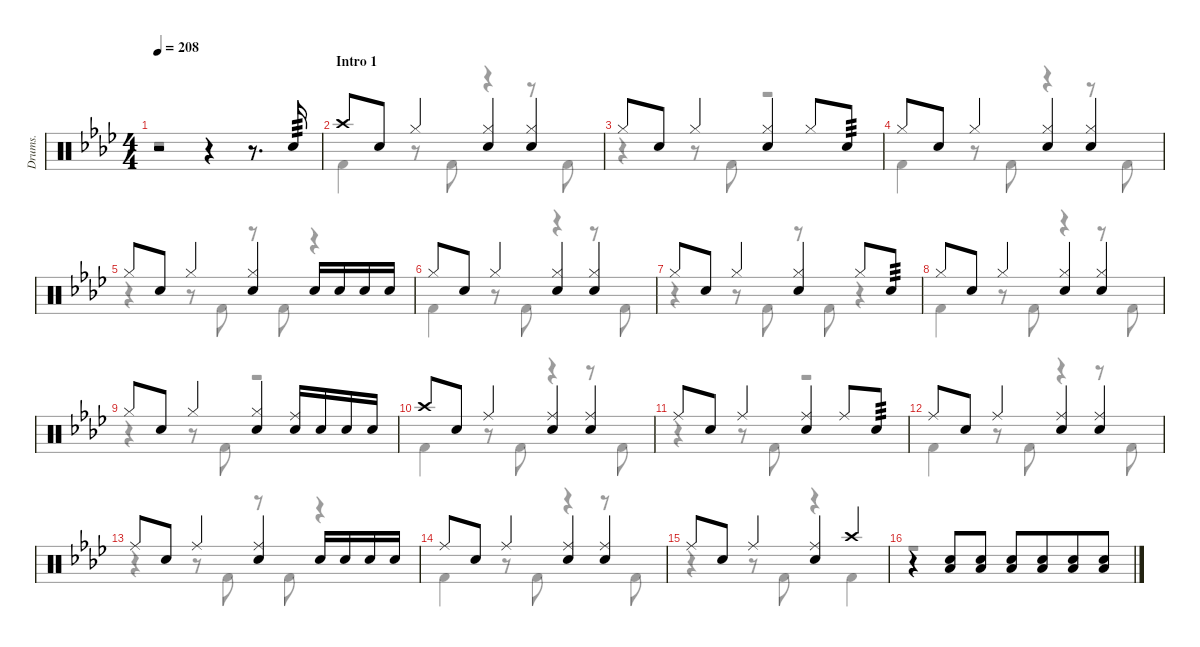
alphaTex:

\defaultSystemsLayout 4
\hideDynamics
\otherSystemsTrackNameOrientation horizontal
\track ("Drumkit" "Drums.") {defaultSystemsLayout 4 instrument percussion}
\staff {score}
\articulation defaults
\voice
\ts (4 4)
\tempo 208
\clef neutral
\ks fminor
r.2{dy mf} r.4 r.8{d} "Snare (hit) 2"{acc forcenatural}.16{tp 3} |
\section ("" "Intro 1")
"Crash high (hit)"{acc forcenatural}.8 "Snare (hit) 2"{acc forcenatural}.8 "Hi-Hat (closed)"{acc forcenatural}.4 ("Hi-Hat (closed)"{acc forcenatural} "Snare (hit) 2"{acc forcenatural}).4 ("Hi-Hat (closed)"{acc forcenatural} "Snare (hit) 2"{acc forcenatural}).4 |
"Hi-Hat (closed)"{acc forcenatural}.8 "Snare (hit) 2"{acc forcenatural}.8 "Hi-Hat (closed)"{acc forcenatural}.4 ("Hi-Hat (closed)"{acc forcenatural} "Snare (hit) 2"{acc forcenatural}).4 "Hi-Hat (closed)"{acc forcenatural}.8 "Snare (hit) 2"{acc forcenatural}.8{tp 3} |
"Hi-Hat (closed)"{acc forcenatural}.8 "Snare (hit) 2"{acc forcenatural}.8 "Hi-Hat (closed)"{acc forcenatural}.4 ("Hi-Hat (closed)"{acc forcenatural} "Snare (hit) 2"{acc forcenatural}).4 ("Hi-Hat (closed)"{acc forcenatural} "Snare (hit) 2"{acc forcenatural}).4 |
"Hi-Hat (closed)"{acc forcenatural}.8 "Snare (hit) 2"{acc forcenatural}.8 "Hi-Hat (closed)"{acc forcenatural}.4 ("Hi-Hat (closed)"{acc forcenatural} "Snare (hit) 2"{acc forcenatural}).4 "Snare (hit) 2"{acc forcenatural}.16 "Snare (hit) 2"{acc forcenatural}.16 "Snare (hit) 2"{acc forcenatural}.16 "Snare (hit) 2"{acc forcenatural}.16 |
"Hi-Hat (closed)"{acc forcenatural}.8 "Snare (hit) 2"{acc forcenatural}.8 "Hi-Hat (closed)"{acc forcenatural}.4 ("Hi-Hat (closed)"{acc forcenatural} "Snare (hit) 2"{acc forcenatural}).4 ("Hi-Hat (closed)"{acc forcenatural} "Snare (hit) 2"{acc forcenatural}).4 |
"Hi-Hat (closed)"{acc forcenatural}.8 "Snare (hit) 2"{acc forcenatural}.8 "Hi-Hat (closed)"{acc forcenatural}.4 ("Hi-Hat (closed)"{acc forcenatural} "Snare (hit) 2"{acc forcenatural}).4 "Hi-Hat (closed)"{acc forcenatural}.8 "Snare (hit) 2"{acc forcenatural}.8{tp 3} |
"Hi-Hat (closed)"{acc forcenatural}.8 "Snare (hit) 2"{acc forcenatural}.8 "Hi-Hat (closed)"{acc forcenatural}.4 ("Hi-Hat (closed)"{acc forcenatural} "Snare (hit) 2"{acc forcenatural}).4 ("Hi-Hat (closed)"{acc forcenatural} "Snare (hit) 2"{acc forcenatural}).4 |
"Hi-Hat (closed)"{acc forcenatural}.8 "Snare (hit) 2"{acc forcenatural}.8 "Hi-Hat (closed)"{acc forcenatural}.4 ("Hi-Hat (closed)"{acc forcenatural} "Snare (hit) 2"{acc forcenatural}).4 ("Snare (hit) 2"{acc forcenatural} "Ride (middle)"{acc forcenatural}).16 "Snare (hit) 2"{acc forcenatural}.16 "Snare (hit) 2"{acc forcenatural}.16 "Snare (hit) 2"{acc forcenatural}.16 |
"Crash high (hit)"{acc forcenatural}.8 "Snare (hit) 2"{acc forcenatural}.8 "Ride (middle)"{acc forcenatural}.4 ("Snare (hit) 2"{acc forcenatural} "Ride (middle)"{acc forcenatural}).4 ("Snare (hit) 2"{acc forcenatural} "Ride (middle)"{acc forcenatural}).4 |
"Ride (middle)"{acc forcenatural}.8 "Snare (hit) 2"{acc forcenatural}.8 "Ride (middle)"{acc forcenatural}.4 ("Snare (hit) 2"{acc forcenatural} "Ride (middle)"{acc forcenatural}).4 "Ride (middle)"{acc forcenatural}.8 "Snare (hit) 2"{acc forcenatural}.8{tp 3} |
"Ride (middle)"{acc forcenatural}.8 "Snare (hit) 2"{acc forcenatural}.8 "Ride (middle)"{acc forcenatural}.4 ("Snare (hit) 2"{acc forcenatural} "Ride (middle)"{acc forcenatural}).4 ("Snare (hit) 2"{acc forcenatural} "Ride (middle)"{acc forcenatural}).4 |
"Ride (middle)"{acc forcenatural}.8 "Snare (hit) 2"{acc forcenatural}.8 "Ride (middle)"{acc forcenatural}.4 ("Snare (hit) 2"{acc forcenatural} "Ride (middle)"{acc forcenatural}).4 "Snare (hit) 2"{acc forcenatural}.16 "Snare (hit) 2"{acc forcenatural}.16 "Snare (hit) 2"{acc forcenatural}.16 "Snare (hit) 2"{acc forcenatural}.16 |
"Ride (middle)"{acc forcenatural}.8 "Snare (hit) 2"{acc forcenatural}.8 "Ride (middle)"{acc forcenatural}.4 ("Snare (hit) 2"{acc forcenatural} "Ride (middle)"{acc forcenatural}).4 ("Snare (hit) 2"{acc forcenatural} "Ride (middle)"{acc forcenatural}).4 |
"Ride (middle)"{acc forcenatural}.8 "Snare (hit) 2"{acc forcenatural}.8 "Ride (middle)"{acc forcenatural}.4 ("Snare (hit) 2"{acc forcenatural} "Ride (middle)"{acc forcenatural}).4 "Crash high (hit)"{acc forcenatural}.4 |
r.4 ("Snare (hit) 2"{acc forcenatural} "Low Tom (hit)"{acc forcenatural}).8 ("Snare (hit) 2"{acc forcenatural} "Low Tom (hit)"{acc forcenatural}).8 ("Snare (hit) 2"{acc forcenatural} "Low Tom (hit)"{acc forcenatural}).8{beam merge} ("Snare (hit) 2"{acc forcenatural} "Low Tom (hit)"{acc forcenatural}).8{beam merge} ("Snare (hit) 2"{acc forcenatural} "Low Tom (hit)"{acc forcenatural}).8{beam merge} ("Snare (hit) 2"{acc forcenatural} "Low Tom (hit)"{acc forcenatural}).8
\voice
\clef neutral
\ottava regular
\simile none
\ks fminor
r.1{dy mf} |
"Kick (hit) 2"{acc forcenatural}.4 r.8 "Kick (hit) 2"{acc forcenatural}.8 r.4 r.8 "Kick (hit) 2"{acc forcenatural}.8 |
r.4 r.8 "Kick (hit) 2"{acc forcenatural}.8 r.2 |
"Kick (hit) 2"{acc forcenatural}.4 r.8 "Kick (hit) 2"{acc forcenatural}.8 r.4 r.8 "Kick (hit) 2"{acc forcenatural}.8 |
r.4 r.8 "Kick (hit) 2"{acc forcenatural}.8 r.8 "Kick (hit) 2"{acc forcenatural}.8 r.4 |
"Kick (hit) 2"{acc forcenatural}.4 r.8 "Kick (hit) 2"{acc forcenatural}.8 r.4 r.8 "Kick (hit) 2"{acc forcenatural}.8 |
r.4 r.8 "Kick (hit) 2"{acc forcenatural}.8 r.8 "Kick (hit) 2"{acc forcenatural}.8 r.4 |
"Kick (hit) 2"{acc forcenatural}.4 r.8 "Kick (hit) 2"{acc forcenatural}.8 r.4 r.8 "Kick (hit) 2"{acc forcenatural}.8 |
r.4 r.8 "Kick (hit) 2"{acc forcenatural}.8 r.2 |
"Kick (hit) 2"{acc forcenatural}.4 r.8 "Kick (hit) 2"{acc forcenatural}.8 r.4 r.8 "Kick (hit) 2"{acc forcenatural}.8 |
r.4 r.8 "Kick (hit) 2"{acc forcenatural}.8 r.2 |
"Kick (hit) 2"{acc forcenatural}.4 r.8 "Kick (hit) 2"{acc forcenatural}.8 r.4 r.8 "Kick (hit) 2"{acc forcenatural}.8 |
r.4 r.8 "Kick (hit) 2"{acc forcenatural}.8 r.8 "Kick (hit) 2"{acc forcenatural}.8 r.4 |
"Kick (hit) 2"{acc forcenatural}.4 r.8 "Kick (hit) 2"{acc forcenatural}.8 r.4 r.8 "Kick (hit) 2"{acc forcenatural}.8 |
r.4 r.8 "Kick (hit) 2"{acc forcenatural}.8 r.4 "Kick (hit) 2"{acc forcenatural}.4 |
r.1
